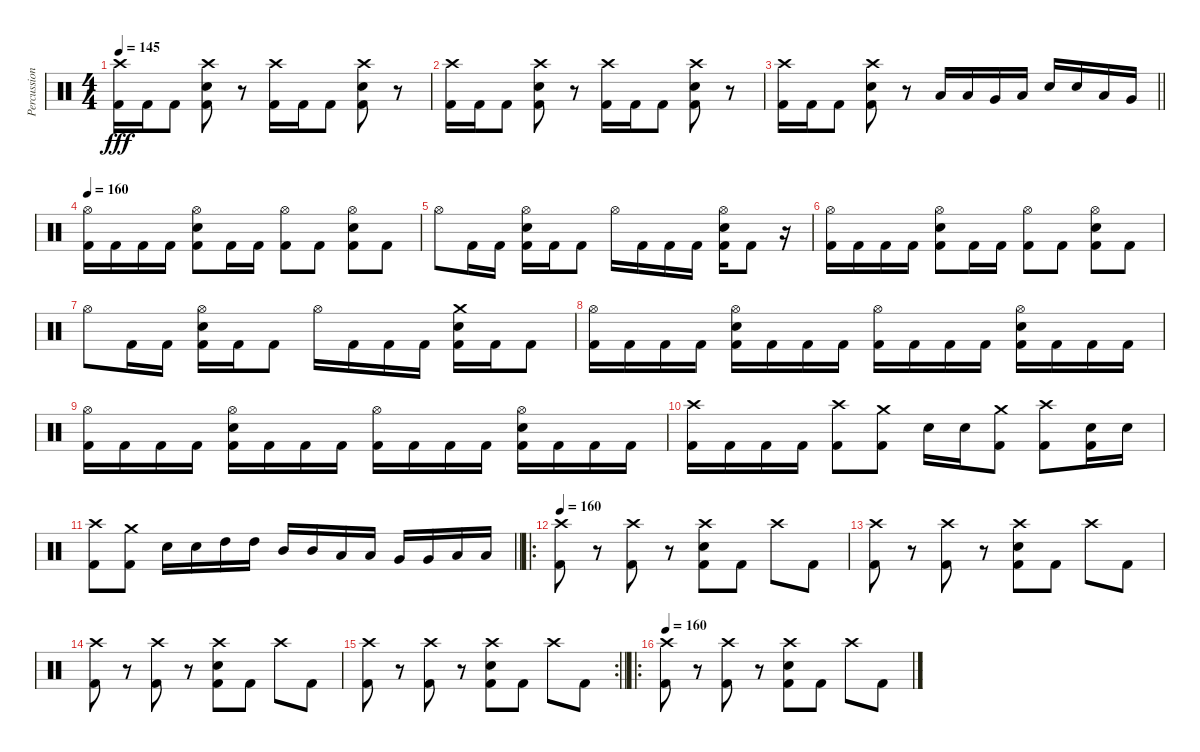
\track ("Percussion" "Percussion") {instrument percussion}
\staff {score}
\articulation defaults
\ts (4 4)
\tempo 145
\clef neutral
\ks c
("Crash high (hit)" "Kick (hit) 2").16{dy fff} "Kick (hit) 2".16 "Kick (hit) 2".8 ("Crash high (hit)" "Snare (hit) 2" "Kick (hit) 2").8 r.8 ("Crash high (hit)" "Kick (hit) 2").16 "Kick (hit) 2".16 "Kick (hit) 2".8 ("Crash high (hit)" "Snare (hit) 2" "Kick (hit) 2").8 r.8 |
("Crash high (hit)" "Kick (hit) 2").16 "Kick (hit) 2".16 "Kick (hit) 2".8 ("Crash high (hit)" "Snare (hit) 2" "Kick (hit) 2").8 r.8 ("Crash high (hit)" "Kick (hit) 2").16 "Kick (hit) 2".16 "Kick (hit) 2".8 ("Crash high (hit)" "Snare (hit) 2" "Kick (hit) 2").8 r.8 |
\barLineRight lightlight
("Crash high (hit)" "Kick (hit) 2").16 "Kick (hit) 2".16 "Kick (hit) 2".8 ("Crash high (hit)" "Snare (hit) 2" "Kick (hit) 2").8 r.8 "Low Tom (hit)".16 "Low Tom (hit)".16 "Very Low Tom (hit)".16 "Low Floor Tom (hit)".16 "Snare (hit) 2".16 "Snare (hit) 2".16 "Low Tom (hit)".16 "Very Low Tom (hit)".16 |
\section ("" "")
\tempo 160
("Hi-Hat (open)" "Kick (hit) 2").16 "Kick (hit) 2".16 "Kick (hit) 2".16 "Kick (hit) 2".16 ("Hi-Hat (open)" "Snare (hit) 2" "Kick (hit) 2").8 "Kick (hit) 2".16 "Kick (hit) 2".16 ("Hi-Hat (open)" "Kick (hit) 2").8 "Kick (hit) 2".8 ("Hi-Hat (open)" "Snare (hit) 2" "Kick (hit) 2").8 "Kick (hit) 2".8 |
"Hi-Hat (open)".8 "Kick (hit) 2".16 "Kick (hit) 2".16 ("Hi-Hat (open)" "Snare (hit) 2" "Kick (hit) 2").16 "Kick (hit) 2".16 "Kick (hit) 2".8 "Hi-Hat (open)".16 "Kick (hit) 2".16 "Kick (hit) 2".16 "Kick (hit) 2".16 ("Hi-Hat (open)" "Snare (hit) 2" "Kick (hit) 2").16 "Kick (hit) 2".8 r.16 |
("Hi-Hat (open)" "Kick (hit) 2").16 "Kick (hit) 2".16 "Kick (hit) 2".16 "Kick (hit) 2".16 ("Hi-Hat (open)" "Snare (hit) 2" "Kick (hit) 2").8 "Kick (hit) 2".16 "Kick (hit) 2".16 ("Hi-Hat (open)" "Kick (hit) 2").8 "Kick (hit) 2".8 ("Hi-Hat (open)" "Snare (hit) 2" "Kick (hit) 2").8 "Kick (hit) 2".8 |
"Hi-Hat (open)".8 "Kick (hit) 2".16 "Kick (hit) 2".16 ("Hi-Hat (open)" "Snare (hit) 2" "Kick (hit) 2").16 "Kick (hit) 2".16 "Kick (hit) 2".8 "Hi-Hat (open)".16 "Kick (hit) 2".16 "Kick (hit) 2".16 "Kick (hit) 2".16 ("Crash medium (hit)" "Snare (hit) 2" "Kick (hit) 2").16 "Kick (hit) 2".16 "Kick (hit) 2".8 |
("Hi-Hat (open)" "Kick (hit) 2").16 "Kick (hit) 2".16 "Kick (hit) 2".16 "Kick (hit) 2".16 ("Hi-Hat (open)" "Snare (hit) 2" "Kick (hit) 2").16 "Kick (hit) 2".16 "Kick (hit) 2".16 "Kick (hit) 2".16 ("Hi-Hat (open)" "Kick (hit) 2").16 "Kick (hit) 2".16 "Kick (hit) 2".16 "Kick (hit) 2".16 ("Hi-Hat (open)" "Snare (hit) 2" "Kick (hit) 2").16 "Kick (hit) 2".16 "Kick (hit) 2".16 "Kick (hit) 2".16 |
("Hi-Hat (open)" "Kick (hit) 2").16 "Kick (hit) 2".16 "Kick (hit) 2".16 "Kick (hit) 2".16 ("Hi-Hat (open)" "Snare (hit) 2" "Kick (hit) 2").16 "Kick (hit) 2".16 "Kick (hit) 2".16 "Kick (hit) 2".16 ("Hi-Hat (open)" "Kick (hit) 2").16 "Kick (hit) 2".16 "Kick (hit) 2".16 "Kick (hit) 2".16 ("Hi-Hat (open)" "Snare (hit) 2" "Kick (hit) 2").16 "Kick (hit) 2".16 "Kick (hit) 2".16 "Kick (hit) 2".16 |
("Crash high (hit)" "Kick (hit) 2").16 "Kick (hit) 2".16 "Kick (hit) 2".16 "Kick (hit) 2".16 ("Crash high (hit)" "Kick (hit) 2").8 ("Crash medium (hit)" "Kick (hit) 2").8 "Snare (hit) 2".16 "Snare (hit) 2".16 ("Crash medium (hit)" "Kick (hit) 2").8 ("Crash high (hit)" "Kick (hit) 2").8 ("Kick (hit) 2" "Snare (hit) 2").16 "Snare (hit) 2".16 |
\barLineRight lightlight
("Crash high (hit)" "Kick (hit) 2").8 ("Crash medium (hit)" "Kick (hit) 2").8 "Snare (hit) 2".16 "Snare (hit) 2".16 "High Tom (hit)".16 "High Tom (hit)".16 "Mid Tom (hit)".16 "Mid Tom (hit)".16 "Low Tom (hit)".16 "Low Tom (hit)".16 "Very Low Tom (hit)".16 "Very Low Tom (hit)".16 "Low Floor Tom (hit)".16 "Low Floor Tom (hit)".16 |
\ro
\section ("" "")
\tempo 160
("Crash high (hit)" "Kick (hit) 2").8 r.8 ("Crash high (hit)" "Kick (hit) 2").8 r.8 ("Crash high (hit)" "Snare (hit) 2" "Kick (hit) 2").8 "Kick (hit) 2".8 "Crash high (hit)".8 "Kick (hit) 2".8 |
("Crash high (hit)" "Kick (hit) 2").8 r.8 ("Crash high (hit)" "Kick (hit) 2").8 r.8 ("Crash high (hit)" "Snare (hit) 2" "Kick (hit) 2").8 "Kick (hit) 2".8 "Crash high (hit)".8 "Kick (hit) 2".8 |
("Crash high (hit)" "Kick (hit) 2").8 r.8 ("Crash high (hit)" "Kick (hit) 2").8 r.8 ("Crash high (hit)" "Snare (hit) 2" "Kick (hit) 2").8 "Kick (hit) 2".8 "Crash high (hit)".8 "Kick (hit) 2".8 |
\rc 2
\barLineRight lightlight
("Crash high (hit)" "Kick (hit) 2").8 r.8 ("Crash high (hit)" "Kick (hit) 2").8 r.8 ("Crash high (hit)" "Snare (hit) 2" "Kick (hit) 2").8 "Kick (hit) 2".8 "Crash high (hit)".8 "Kick (hit) 2".8 |
\ro
\section ("" "")
\tempo 160
("Crash high (hit)" "Kick (hit) 2").8 r.8 ("Crash high (hit)" "Kick (hit) 2").8 r.8 ("Crash high (hit)" "Snare (hit) 2" "Kick (hit) 2").8 "Kick (hit) 2".8 "Crash high (hit)".8 "Kick (hit) 2".8
